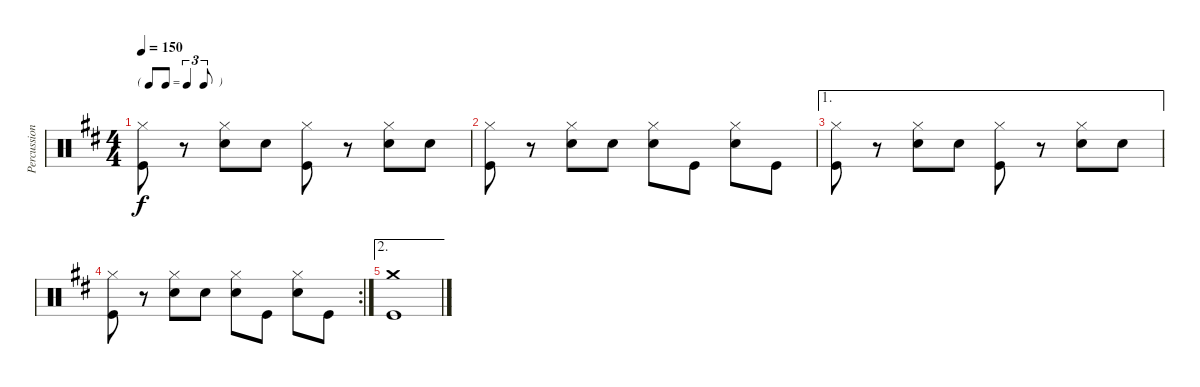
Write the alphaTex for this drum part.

\track ("Percussion" "Percussion") {instrument percussion}
\staff {score}
\articulation defaults
\ts (4 4)
\tf triplet8th
\tempo 150
\clef neutral
\ks d
("Hi-Hat (closed)" "Kick (hit)").8{dy f} r.8 ("Hi-Hat (closed)" "Electric Snare (hit)").8 "Electric Snare (hit)".8 ("Hi-Hat (closed)" "Kick (hit)").8 r.8 ("Hi-Hat (closed)" "Electric Snare (hit)").8 "Electric Snare (hit)".8 |
("Hi-Hat (closed)" "Kick (hit)").8 r.8 ("Hi-Hat (closed)" "Electric Snare (hit)").8 "Electric Snare (hit)".8 ("Hi-Hat (closed)" "Electric Snare (hit)").8 "Kick (hit)".8 ("Hi-Hat (closed)" "Electric Snare (hit)").8 "Kick (hit)".8 |
\ae 1
("Hi-Hat (closed)" "Kick (hit)").8 r.8 ("Hi-Hat (closed)" "Electric Snare (hit)").8 "Electric Snare (hit)".8 ("Hi-Hat (closed)" "Kick (hit)").8 r.8 ("Hi-Hat (closed)" "Electric Snare (hit)").8 "Electric Snare (hit)".8 |
\rc 2
("Hi-Hat (closed)" "Kick (hit)").8 r.8 ("Hi-Hat (closed)" "Electric Snare (hit)").8 "Electric Snare (hit)".8 ("Hi-Hat (closed)" "Electric Snare (hit)").8 "Kick (hit)".8 ("Hi-Hat (closed)" "Electric Snare (hit)").8 "Kick (hit)".8 |
\ae 2
("Crash medium (hit)" "Kick (hit)").1
